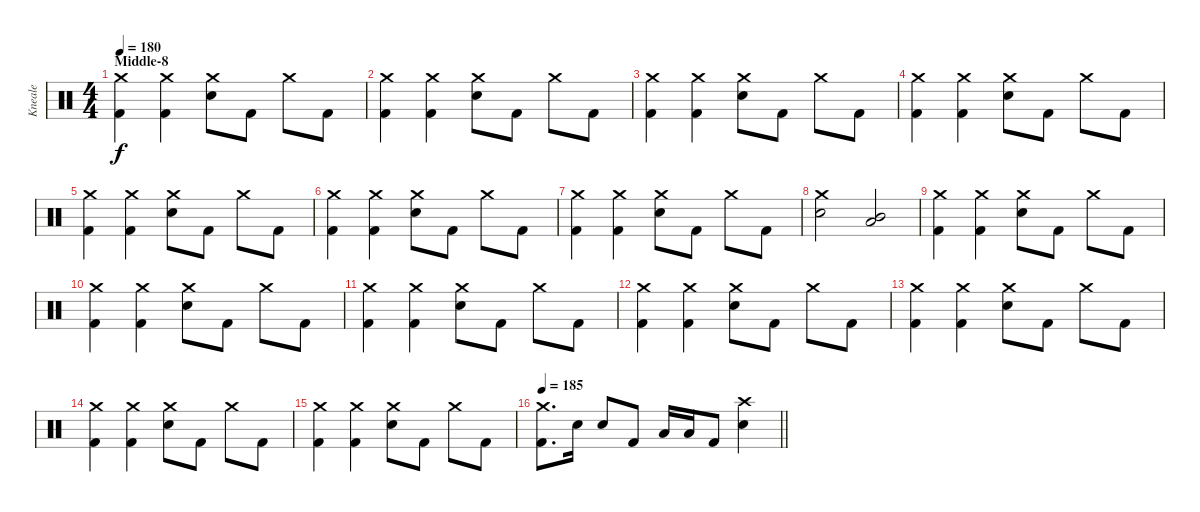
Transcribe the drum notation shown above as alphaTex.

\track ("Kneale" "Kneale") {instrument percussion}
\staff {score}
\articulation defaults
\ts (4 4)
\section ("" "Middle-8")
\tempo 180
\clef neutral
\ks c
("Crash medium (hit)" "Kick (hit) 2").4{dy f} ("Crash medium (hit)" "Kick (hit) 2").4 ("Crash medium (hit)" "Electric Snare (hit)").8 "Kick (hit) 2".8 "Crash medium (hit)".8 "Kick (hit) 2".8 |
("Crash medium (hit)" "Kick (hit) 2").4 ("Crash medium (hit)" "Kick (hit) 2").4 ("Crash medium (hit)" "Electric Snare (hit)").8 "Kick (hit) 2".8 "Crash medium (hit)".8 "Kick (hit) 2".8 |
("Crash medium (hit)" "Kick (hit) 2").4 ("Crash medium (hit)" "Kick (hit) 2").4 ("Crash medium (hit)" "Electric Snare (hit)").8 "Kick (hit) 2".8 "Crash medium (hit)".8 "Kick (hit) 2".8 |
("Crash medium (hit)" "Kick (hit) 2").4 ("Crash medium (hit)" "Kick (hit) 2").4 ("Crash medium (hit)" "Electric Snare (hit)").8 "Kick (hit) 2".8 "Crash medium (hit)".8 "Kick (hit) 2".8 |
("Crash medium (hit)" "Kick (hit) 2").4 ("Crash medium (hit)" "Kick (hit) 2").4 ("Crash medium (hit)" "Electric Snare (hit)").8 "Kick (hit) 2".8 "Crash medium (hit)".8 "Kick (hit) 2".8 |
("Crash medium (hit)" "Kick (hit) 2").4 ("Crash medium (hit)" "Kick (hit) 2").4 ("Crash medium (hit)" "Electric Snare (hit)").8 "Kick (hit) 2".8 "Crash medium (hit)".8 "Kick (hit) 2".8 |
("Crash medium (hit)" "Kick (hit) 2").4 ("Crash medium (hit)" "Kick (hit) 2").4 ("Crash medium (hit)" "Electric Snare (hit)").8 "Kick (hit) 2".8 "Crash medium (hit)".8 "Kick (hit) 2".8 |
("Crash medium (hit)" "Electric Snare (hit)").2 ("Low Floor Tom (hit)" "Mid Tom (hit)").2 |
("Crash medium (hit)" "Kick (hit) 2").4 ("Crash medium (hit)" "Kick (hit) 2").4 ("Crash medium (hit)" "Electric Snare (hit)").8 "Kick (hit) 2".8 "Crash medium (hit)".8 "Kick (hit) 2".8 |
("Crash medium (hit)" "Kick (hit) 2").4 ("Crash medium (hit)" "Kick (hit) 2").4 ("Crash medium (hit)" "Electric Snare (hit)").8 "Kick (hit) 2".8 "Crash medium (hit)".8 "Kick (hit) 2".8 |
("Crash medium (hit)" "Kick (hit) 2").4 ("Crash medium (hit)" "Kick (hit) 2").4 ("Crash medium (hit)" "Electric Snare (hit)").8 "Kick (hit) 2".8 "Crash medium (hit)".8 "Kick (hit) 2".8 |
("Crash medium (hit)" "Kick (hit) 2").4 ("Crash medium (hit)" "Kick (hit) 2").4 ("Crash medium (hit)" "Electric Snare (hit)").8 "Kick (hit) 2".8 "Crash medium (hit)".8 "Kick (hit) 2".8 |
("Crash medium (hit)" "Kick (hit) 2").4 ("Crash medium (hit)" "Kick (hit) 2").4 ("Crash medium (hit)" "Electric Snare (hit)").8 "Kick (hit) 2".8 "Crash medium (hit)".8 "Kick (hit) 2".8 |
("Crash medium (hit)" "Kick (hit) 2").4 ("Crash medium (hit)" "Kick (hit) 2").4 ("Crash medium (hit)" "Electric Snare (hit)").8 "Kick (hit) 2".8 "Crash medium (hit)".8 "Kick (hit) 2".8 |
("Crash medium (hit)" "Kick (hit) 2").4 ("Crash medium (hit)" "Kick (hit) 2").4 ("Crash medium (hit)" "Electric Snare (hit)").8 "Kick (hit) 2".8 "Crash medium (hit)".8 "Kick (hit) 2".8 |
\tempo 185
\barLineRight lightlight
("Crash medium (hit)" "Kick (hit) 2").8{d} "Electric Snare (hit)".16 "Electric Snare (hit)".8 "Kick (hit) 2".8 "Low Tom (hit)".16 "Low Tom (hit)".16 "Kick (hit) 2".8 ("Crash high (hit)" "Electric Snare (hit)").4
